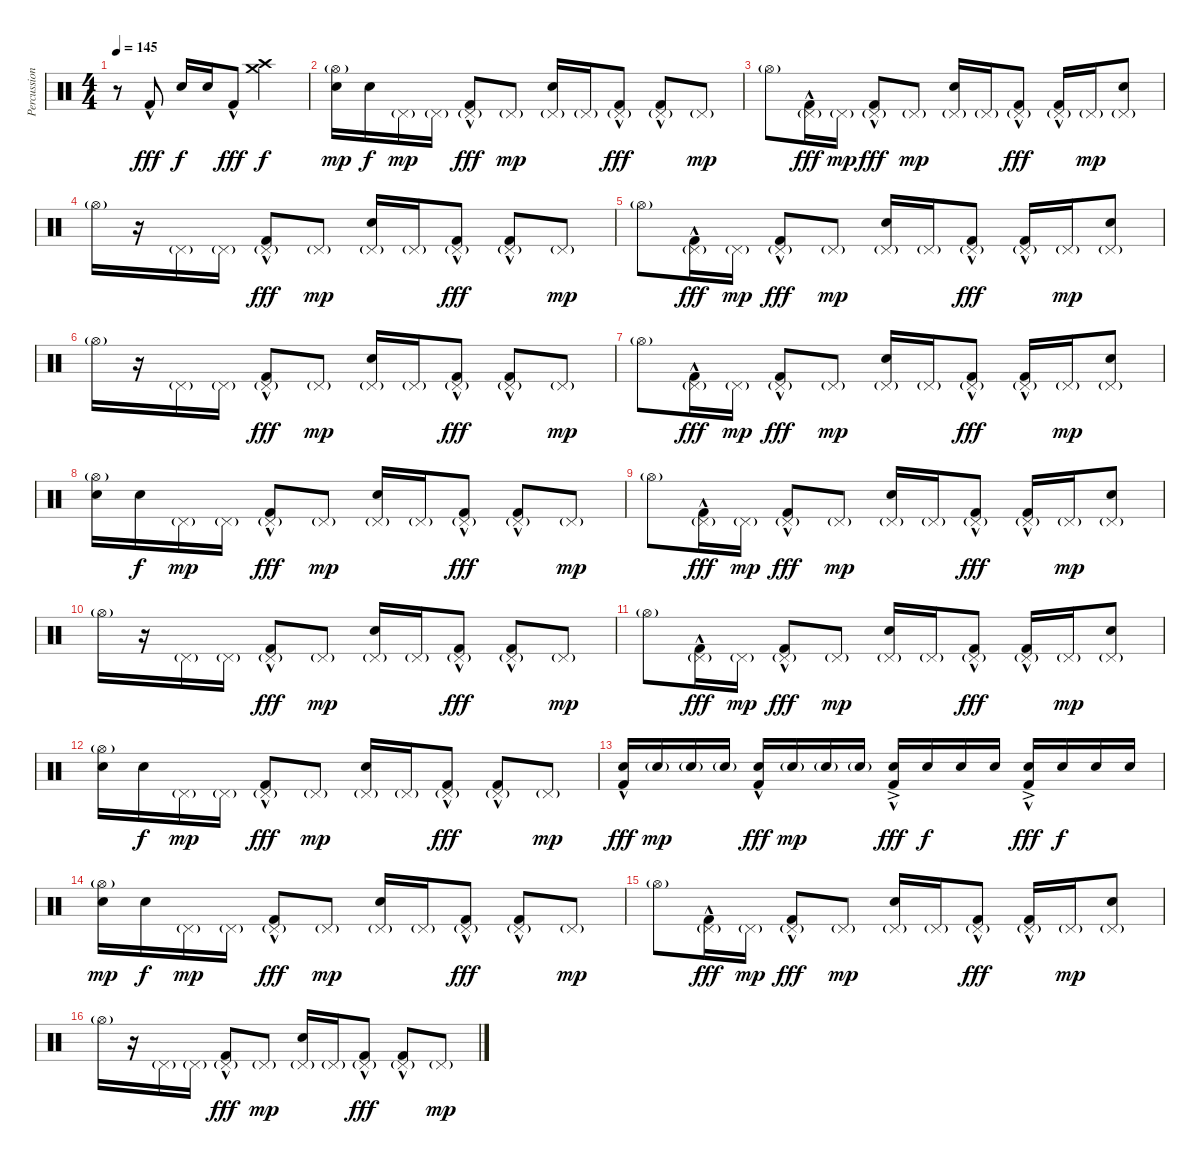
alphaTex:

\track ("Percussion" "Percussion") {instrument percussion}
\staff {score}
\articulation defaults
\ts (4 4)
\tempo 145
\clef neutral
\ks c
r.8{dy fff} "Kick (hit) 2"{hac}.8 "Snare (hit) 2".16{dy f} "Snare (hit) 2".16 "Kick (hit) 2"{hac}.8{dy fff} ("Crash high (hit)" "Crash medium (hit)").2{dy f} |
("Hi-Hat (open)"{g} "Snare (hit) 2").16{dy mp} "Snare (hit) 2".16{dy f} "Pedal Hi-Hat (hit)"{g}.16{dy mp} "Pedal Hi-Hat (hit)"{g}.16 ("Pedal Hi-Hat (hit)"{g} "Kick (hit) 2"{hac}).8{dy fff} "Pedal Hi-Hat (hit)"{g}.8{dy mp} ("Pedal Hi-Hat (hit)"{g} "Snare (hit) 2").16 "Pedal Hi-Hat (hit)"{g}.16 ("Pedal Hi-Hat (hit)"{g} "Kick (hit) 2"{hac}).8{dy fff} ("Pedal Hi-Hat (hit)"{g} "Kick (hit) 2"{hac}).8 "Pedal Hi-Hat (hit)"{g}.8{dy mp} |
"Hi-Hat (open)"{g}.8 ("Pedal Hi-Hat (hit)"{g} "Kick (hit) 2"{hac}).16{dy fff} "Pedal Hi-Hat (hit)"{g}.16{dy mp} ("Pedal Hi-Hat (hit)"{g} "Kick (hit) 2"{hac}).8{dy fff} "Pedal Hi-Hat (hit)"{g}.8{dy mp} ("Pedal Hi-Hat (hit)"{g} "Snare (hit) 2").16 "Pedal Hi-Hat (hit)"{g}.16 ("Pedal Hi-Hat (hit)"{g} "Kick (hit) 2"{hac}).8{dy fff} ("Pedal Hi-Hat (hit)"{g} "Kick (hit) 2"{hac}).16 "Pedal Hi-Hat (hit)"{g}.16{dy mp} ("Pedal Hi-Hat (hit)"{g} "Snare (hit) 2").8 |
"Hi-Hat (open)"{g}.16 r.16 "Pedal Hi-Hat (hit)"{g}.16 "Pedal Hi-Hat (hit)"{g}.16 ("Pedal Hi-Hat (hit)"{g} "Kick (hit) 2"{hac}).8{dy fff} "Pedal Hi-Hat (hit)"{g}.8{dy mp} ("Pedal Hi-Hat (hit)"{g} "Snare (hit) 2").16 "Pedal Hi-Hat (hit)"{g}.16 ("Pedal Hi-Hat (hit)"{g} "Kick (hit) 2"{hac}).8{dy fff} ("Pedal Hi-Hat (hit)"{g} "Kick (hit) 2"{hac}).8 "Pedal Hi-Hat (hit)"{g}.8{dy mp} |
"Hi-Hat (open)"{g}.8 ("Pedal Hi-Hat (hit)"{g} "Kick (hit) 2"{hac}).16{dy fff} "Pedal Hi-Hat (hit)"{g}.16{dy mp} ("Pedal Hi-Hat (hit)"{g} "Kick (hit) 2"{hac}).8{dy fff} "Pedal Hi-Hat (hit)"{g}.8{dy mp} ("Pedal Hi-Hat (hit)"{g} "Snare (hit) 2").16 "Pedal Hi-Hat (hit)"{g}.16 ("Pedal Hi-Hat (hit)"{g} "Kick (hit) 2"{hac}).8{dy fff} ("Pedal Hi-Hat (hit)"{g} "Kick (hit) 2"{hac}).16 "Pedal Hi-Hat (hit)"{g}.16{dy mp} ("Pedal Hi-Hat (hit)"{g} "Snare (hit) 2").8 |
"Hi-Hat (open)"{g}.16 r.16 "Pedal Hi-Hat (hit)"{g}.16 "Pedal Hi-Hat (hit)"{g}.16 ("Pedal Hi-Hat (hit)"{g} "Kick (hit) 2"{hac}).8{dy fff} "Pedal Hi-Hat (hit)"{g}.8{dy mp} ("Pedal Hi-Hat (hit)"{g} "Snare (hit) 2").16 "Pedal Hi-Hat (hit)"{g}.16 ("Pedal Hi-Hat (hit)"{g} "Kick (hit) 2"{hac}).8{dy fff} ("Pedal Hi-Hat (hit)"{g} "Kick (hit) 2"{hac}).8 "Pedal Hi-Hat (hit)"{g}.8{dy mp} |
"Hi-Hat (open)"{g}.8 ("Pedal Hi-Hat (hit)"{g} "Kick (hit) 2"{hac}).16{dy fff} "Pedal Hi-Hat (hit)"{g}.16{dy mp} ("Pedal Hi-Hat (hit)"{g} "Kick (hit) 2"{hac}).8{dy fff} "Pedal Hi-Hat (hit)"{g}.8{dy mp} ("Pedal Hi-Hat (hit)"{g} "Snare (hit) 2").16 "Pedal Hi-Hat (hit)"{g}.16 ("Pedal Hi-Hat (hit)"{g} "Kick (hit) 2"{hac}).8{dy fff} ("Pedal Hi-Hat (hit)"{g} "Kick (hit) 2"{hac}).16 "Pedal Hi-Hat (hit)"{g}.16{dy mp} ("Pedal Hi-Hat (hit)"{g} "Snare (hit) 2").8 |
("Hi-Hat (open)"{g} "Snare (hit) 2").16 "Snare (hit) 2".16{dy f} "Pedal Hi-Hat (hit)"{g}.16{dy mp} "Pedal Hi-Hat (hit)"{g}.16 ("Pedal Hi-Hat (hit)"{g} "Kick (hit) 2"{hac}).8{dy fff} "Pedal Hi-Hat (hit)"{g}.8{dy mp} ("Pedal Hi-Hat (hit)"{g} "Snare (hit) 2").16 "Pedal Hi-Hat (hit)"{g}.16 ("Pedal Hi-Hat (hit)"{g} "Kick (hit) 2"{hac}).8{dy fff} ("Pedal Hi-Hat (hit)"{g} "Kick (hit) 2"{hac}).8 "Pedal Hi-Hat (hit)"{g}.8{dy mp} |
"Hi-Hat (open)"{g}.8 ("Pedal Hi-Hat (hit)"{g} "Kick (hit) 2"{hac}).16{dy fff} "Pedal Hi-Hat (hit)"{g}.16{dy mp} ("Pedal Hi-Hat (hit)"{g} "Kick (hit) 2"{hac}).8{dy fff} "Pedal Hi-Hat (hit)"{g}.8{dy mp} ("Pedal Hi-Hat (hit)"{g} "Snare (hit) 2").16 "Pedal Hi-Hat (hit)"{g}.16 ("Pedal Hi-Hat (hit)"{g} "Kick (hit) 2"{hac}).8{dy fff} ("Pedal Hi-Hat (hit)"{g} "Kick (hit) 2"{hac}).16 "Pedal Hi-Hat (hit)"{g}.16{dy mp} ("Pedal Hi-Hat (hit)"{g} "Snare (hit) 2").8 |
"Hi-Hat (open)"{g}.16 r.16 "Pedal Hi-Hat (hit)"{g}.16 "Pedal Hi-Hat (hit)"{g}.16 ("Pedal Hi-Hat (hit)"{g} "Kick (hit) 2"{hac}).8{dy fff} "Pedal Hi-Hat (hit)"{g}.8{dy mp} ("Pedal Hi-Hat (hit)"{g} "Snare (hit) 2").16 "Pedal Hi-Hat (hit)"{g}.16 ("Pedal Hi-Hat (hit)"{g} "Kick (hit) 2"{hac}).8{dy fff} ("Pedal Hi-Hat (hit)"{g} "Kick (hit) 2"{hac}).8 "Pedal Hi-Hat (hit)"{g}.8{dy mp} |
"Hi-Hat (open)"{g}.8 ("Pedal Hi-Hat (hit)"{g} "Kick (hit) 2"{hac}).16{dy fff} "Pedal Hi-Hat (hit)"{g}.16{dy mp} ("Pedal Hi-Hat (hit)"{g} "Kick (hit) 2"{hac}).8{dy fff} "Pedal Hi-Hat (hit)"{g}.8{dy mp} ("Pedal Hi-Hat (hit)"{g} "Snare (hit) 2").16 "Pedal Hi-Hat (hit)"{g}.16 ("Pedal Hi-Hat (hit)"{g} "Kick (hit) 2"{hac}).8{dy fff} ("Pedal Hi-Hat (hit)"{g} "Kick (hit) 2"{hac}).16 "Pedal Hi-Hat (hit)"{g}.16{dy mp} ("Pedal Hi-Hat (hit)"{g} "Snare (hit) 2").8 |
("Hi-Hat (open)"{g} "Snare (hit) 2").16 "Snare (hit) 2".16{dy f} "Pedal Hi-Hat (hit)"{g}.16{dy mp} "Pedal Hi-Hat (hit)"{g}.16 ("Pedal Hi-Hat (hit)"{g} "Kick (hit) 2"{hac}).8{dy fff} "Pedal Hi-Hat (hit)"{g}.8{dy mp} ("Pedal Hi-Hat (hit)"{g} "Snare (hit) 2").16 "Pedal Hi-Hat (hit)"{g}.16 ("Pedal Hi-Hat (hit)"{g} "Kick (hit) 2"{hac}).8{dy fff} ("Pedal Hi-Hat (hit)"{g} "Kick (hit) 2"{hac}).8 "Pedal Hi-Hat (hit)"{g}.8{dy mp} |
("Snare (hit) 2" "Kick (hit) 2"{hac}).16{dy fff} "Snare (hit) 2"{g}.16{dy mp} "Snare (hit) 2"{g}.16 "Snare (hit) 2"{g}.16 ("Snare (hit) 2" "Kick (hit) 2"{hac}).16{dy fff} "Snare (hit) 2"{g}.16{dy mp} "Snare (hit) 2"{g}.16 "Snare (hit) 2"{g}.16 ("Snare (hit) 2"{ac} "Kick (hit) 2"{hac}).16{dy fff} "Snare (hit) 2".16{dy f} "Snare (hit) 2".16 "Snare (hit) 2".16 ("Snare (hit) 2"{ac} "Kick (hit) 2"{hac}).16{dy fff} "Snare (hit) 2".16{dy f} "Snare (hit) 2".16 "Snare (hit) 2".16 |
("Hi-Hat (open)"{g} "Snare (hit) 2").16{dy mp} "Snare (hit) 2".16{dy f} "Pedal Hi-Hat (hit)"{g}.16{dy mp} "Pedal Hi-Hat (hit)"{g}.16 ("Pedal Hi-Hat (hit)"{g} "Kick (hit) 2"{hac}).8{dy fff} "Pedal Hi-Hat (hit)"{g}.8{dy mp} ("Pedal Hi-Hat (hit)"{g} "Snare (hit) 2").16 "Pedal Hi-Hat (hit)"{g}.16 ("Pedal Hi-Hat (hit)"{g} "Kick (hit) 2"{hac}).8{dy fff} ("Pedal Hi-Hat (hit)"{g} "Kick (hit) 2"{hac}).8 "Pedal Hi-Hat (hit)"{g}.8{dy mp} |
"Hi-Hat (open)"{g}.8 ("Pedal Hi-Hat (hit)"{g} "Kick (hit) 2"{hac}).16{dy fff} "Pedal Hi-Hat (hit)"{g}.16{dy mp} ("Pedal Hi-Hat (hit)"{g} "Kick (hit) 2"{hac}).8{dy fff} "Pedal Hi-Hat (hit)"{g}.8{dy mp} ("Pedal Hi-Hat (hit)"{g} "Snare (hit) 2").16 "Pedal Hi-Hat (hit)"{g}.16 ("Pedal Hi-Hat (hit)"{g} "Kick (hit) 2"{hac}).8{dy fff} ("Pedal Hi-Hat (hit)"{g} "Kick (hit) 2"{hac}).16 "Pedal Hi-Hat (hit)"{g}.16{dy mp} ("Pedal Hi-Hat (hit)"{g} "Snare (hit) 2").8 |
"Hi-Hat (open)"{g}.16 r.16 "Pedal Hi-Hat (hit)"{g}.16 "Pedal Hi-Hat (hit)"{g}.16 ("Pedal Hi-Hat (hit)"{g} "Kick (hit) 2"{hac}).8{dy fff} "Pedal Hi-Hat (hit)"{g}.8{dy mp} ("Pedal Hi-Hat (hit)"{g} "Snare (hit) 2").16 "Pedal Hi-Hat (hit)"{g}.16 ("Pedal Hi-Hat (hit)"{g} "Kick (hit) 2"{hac}).8{dy fff} ("Pedal Hi-Hat (hit)"{g} "Kick (hit) 2"{hac}).8 "Pedal Hi-Hat (hit)"{g}.8{dy mp}
